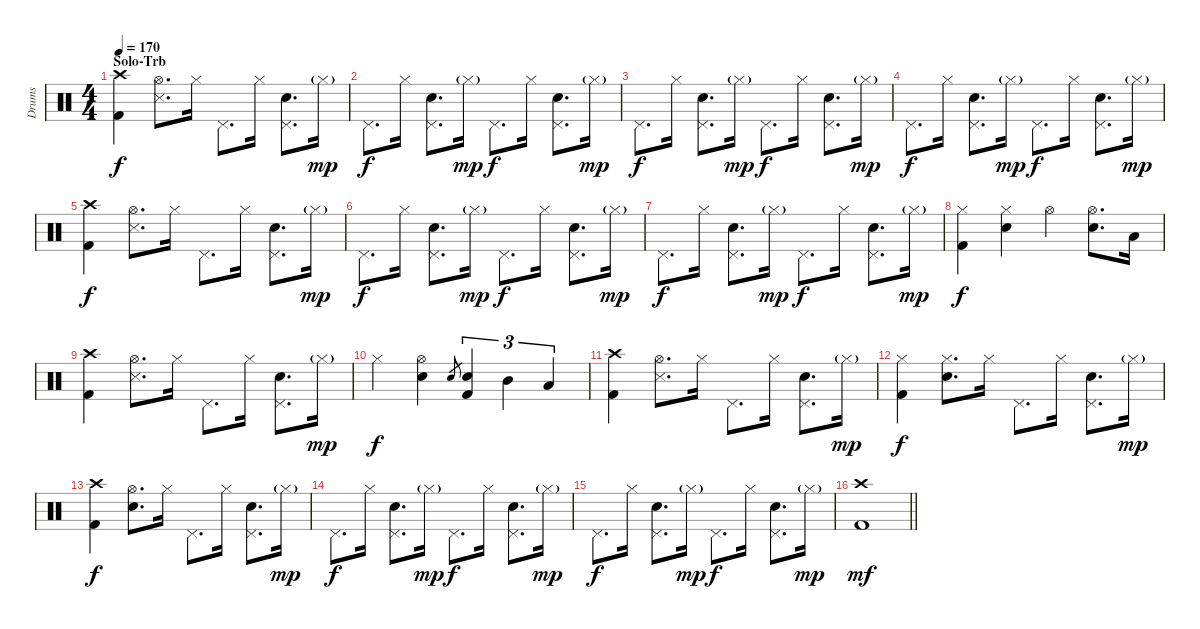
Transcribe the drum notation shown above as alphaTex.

\track ("Drums" "Drums") {instrument percussion}
\staff {score}
\articulation defaults
\ts (4 4)
\section ("" "Solo-Trb")
\tempo 170
\clef neutral
\ks c
("Crash high (hit)" "Kick (hit) 2").4{dy f} ("Hi-Hat (open)" "Snare (side stick) 3").8{d} "Hi-Hat (closed)".16 "Pedal Hi-Hat (hit)".8{d} "Hi-Hat (closed)".16 ("Pedal Hi-Hat (hit)" "Snare (hit) 2").8{d} "Hi-Hat (closed)"{g}.16{dy mp} |
"Pedal Hi-Hat (hit)".8{d dy f} "Hi-Hat (closed)".16 ("Pedal Hi-Hat (hit)" "Snare (hit) 2").8{d} "Hi-Hat (closed)"{g}.16{dy mp} "Pedal Hi-Hat (hit)".8{d dy f} "Hi-Hat (closed)".16 ("Pedal Hi-Hat (hit)" "Snare (hit) 2").8{d} "Hi-Hat (closed)"{g}.16{dy mp} |
"Pedal Hi-Hat (hit)".8{d dy f} "Hi-Hat (closed)".16 ("Pedal Hi-Hat (hit)" "Snare (hit) 2").8{d} "Hi-Hat (closed)"{g}.16{dy mp} "Pedal Hi-Hat (hit)".8{d dy f} "Hi-Hat (closed)".16 ("Pedal Hi-Hat (hit)" "Snare (hit) 2").8{d} "Hi-Hat (closed)"{g}.16{dy mp} |
"Pedal Hi-Hat (hit)".8{d dy f} "Hi-Hat (closed)".16 ("Pedal Hi-Hat (hit)" "Snare (hit) 2").8{d} "Hi-Hat (closed)"{g}.16{dy mp} "Pedal Hi-Hat (hit)".8{d dy f} "Hi-Hat (closed)".16 ("Pedal Hi-Hat (hit)" "Snare (hit) 2").8{d} "Hi-Hat (closed)"{g}.16{dy mp} |
("Crash high (hit)" "Kick (hit) 2").4{dy f} ("Hi-Hat (open)" "Snare (side stick) 3").8{d} "Hi-Hat (closed)".16 "Pedal Hi-Hat (hit)".8{d} "Hi-Hat (closed)".16 ("Pedal Hi-Hat (hit)" "Snare (hit) 2").8{d} "Hi-Hat (closed)"{g}.16{dy mp} |
"Pedal Hi-Hat (hit)".8{d dy f} "Hi-Hat (closed)".16 ("Pedal Hi-Hat (hit)" "Snare (hit) 2").8{d} "Hi-Hat (closed)"{g}.16{dy mp} "Pedal Hi-Hat (hit)".8{d dy f} "Hi-Hat (closed)".16 ("Pedal Hi-Hat (hit)" "Snare (hit) 2").8{d} "Hi-Hat (closed)"{g}.16{dy mp} |
"Pedal Hi-Hat (hit)".8{d dy f} "Hi-Hat (closed)".16 ("Pedal Hi-Hat (hit)" "Snare (hit) 2").8{d} "Hi-Hat (closed)"{g}.16{dy mp} "Pedal Hi-Hat (hit)".8{d dy f} "Hi-Hat (closed)".16 ("Pedal Hi-Hat (hit)" "Snare (hit) 2").8{d} "Hi-Hat (closed)"{g}.16{dy mp} |
("Hi-Hat (closed)" "Kick (hit) 2").4{dy f} ("Hi-Hat (closed)" "Snare (hit) 2").4 "Hi-Hat (open)".4 ("Hi-Hat (open)" "Snare (hit) 2").8{d} "Low Tom (hit)".16 |
("Crash high (hit)" "Kick (hit) 2").4 ("Hi-Hat (open)" "Snare (side stick) 3").8{d} "Hi-Hat (closed)".16 "Pedal Hi-Hat (hit)".8{d} "Hi-Hat (closed)".16 ("Pedal Hi-Hat (hit)" "Snare (hit) 2").8{d} "Hi-Hat (closed)"{g}.16{dy mp} |
"Hi-Hat (closed)".4{dy f} ("Hi-Hat (open)" "Snare (hit) 2").4 "Snare (hit) 2".8{gr} ("Snare (hit) 2" "Kick (hit) 2").4{tu (3 2)} "Mid Tom (hit)".4{tu (3 2)} "Low Tom (hit)".4{tu (3 2)} |
("Crash high (hit)" "Kick (hit) 2").4 ("Hi-Hat (open)" "Snare (side stick) 3").8{d} "Hi-Hat (closed)".16 "Pedal Hi-Hat (hit)".8{d} "Hi-Hat (closed)".16 ("Pedal Hi-Hat (hit)" "Snare (hit) 2").8{d} "Hi-Hat (closed)"{g}.16{dy mp} |
("Hi-Hat (closed)" "Kick (hit) 2").4{dy f} ("Hi-Hat (closed)" "Snare (hit) 2").8{d} "Hi-Hat (closed)".16 "Pedal Hi-Hat (hit)".8{d} "Hi-Hat (closed)".16 ("Pedal Hi-Hat (hit)" "Snare (hit) 2").8{d} "Hi-Hat (closed)"{g}.16{dy mp} |
("Crash high (hit)" "Kick (hit) 2").4{dy f} ("Hi-Hat (open)" "Snare (hit) 2").8{d} "Hi-Hat (closed)".16 "Pedal Hi-Hat (hit)".8{d} "Hi-Hat (closed)".16 ("Pedal Hi-Hat (hit)" "Snare (hit) 2").8{d} "Hi-Hat (closed)"{g}.16{dy mp} |
"Pedal Hi-Hat (hit)".8{d dy f} "Hi-Hat (closed)".16 ("Pedal Hi-Hat (hit)" "Snare (hit) 2").8{d} "Hi-Hat (closed)"{g}.16{dy mp} "Pedal Hi-Hat (hit)".8{d dy f} "Hi-Hat (closed)".16 ("Pedal Hi-Hat (hit)" "Snare (hit) 2").8{d} "Hi-Hat (closed)"{g}.16{dy mp} |
"Pedal Hi-Hat (hit)".8{d dy f} "Hi-Hat (closed)".16 ("Pedal Hi-Hat (hit)" "Snare (hit) 2").8{d} "Hi-Hat (closed)"{g}.16{dy mp} "Pedal Hi-Hat (hit)".8{d dy f} "Hi-Hat (closed)".16 ("Pedal Hi-Hat (hit)" "Snare (hit) 2").8{d} "Hi-Hat (closed)"{g}.16{dy mp} |
\barLineRight lightlight
("Crash high (hit)" "Kick (hit) 2").1{dy mf}
